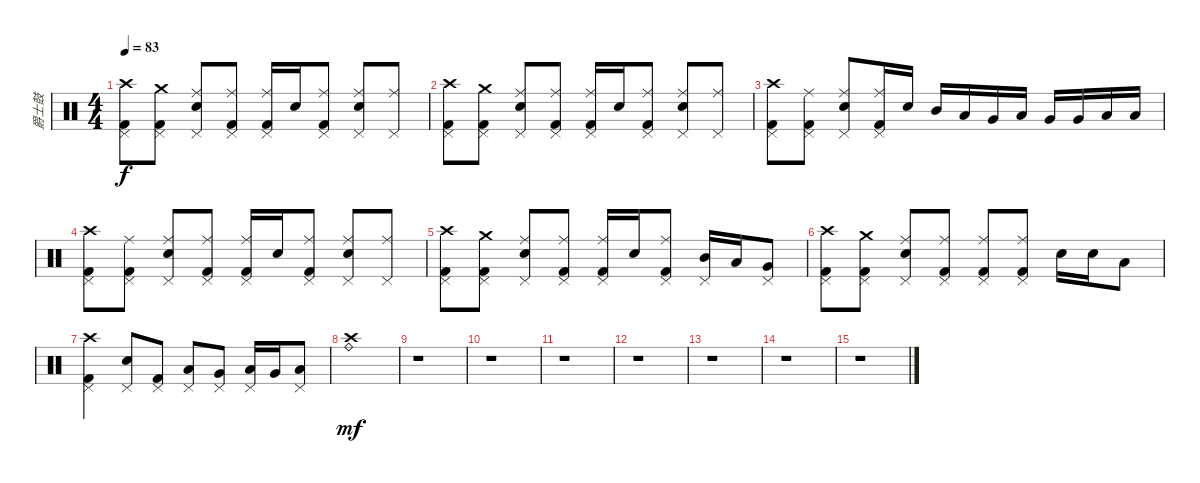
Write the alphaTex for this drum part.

\track ("爵士鼓" "爵士鼓") {instrument percussion}
\staff {score}
\articulation defaults
\ts (4 4)
\tempo 83
\clef neutral
\ks c
("Crash high (hit)" "Pedal Hi-Hat (hit)" "Kick (hit) 2").8{dy f} ("Crash medium (hit)" "Pedal Hi-Hat (hit)" "Kick (hit) 2").8 ("Ride (middle)" "Pedal Hi-Hat (hit)" "Electric Snare (hit)").8 ("Ride (middle)" "Pedal Hi-Hat (hit)" "Kick (hit) 2").8 ("Ride (middle)" "Pedal Hi-Hat (hit)" "Kick (hit) 2").16 "Electric Snare (hit)".16 ("Ride (middle)" "Pedal Hi-Hat (hit)" "Kick (hit) 2").8 ("Ride (middle)" "Pedal Hi-Hat (hit)" "Electric Snare (hit)").8 ("Ride (middle)" "Pedal Hi-Hat (hit)").8 |
("Crash high (hit)" "Pedal Hi-Hat (hit)" "Kick (hit) 2").8 ("Crash medium (hit)" "Pedal Hi-Hat (hit)" "Kick (hit) 2").8 ("Ride (middle)" "Pedal Hi-Hat (hit)" "Electric Snare (hit)").8 ("Ride (middle)" "Pedal Hi-Hat (hit)" "Kick (hit) 2").8 ("Ride (middle)" "Pedal Hi-Hat (hit)" "Kick (hit) 2").16 "Electric Snare (hit)".16 ("Ride (middle)" "Pedal Hi-Hat (hit)" "Kick (hit) 2").8 ("Ride (middle)" "Pedal Hi-Hat (hit)" "Electric Snare (hit)").8 ("Ride (middle)" "Pedal Hi-Hat (hit)").8 |
("Crash high (hit)" "Pedal Hi-Hat (hit)" "Kick (hit) 2").8 ("Ride (middle)" "Pedal Hi-Hat (hit)" "Kick (hit) 2").8 ("Ride (middle)" "Pedal Hi-Hat (hit)" "Electric Snare (hit)").8 ("Ride (middle)" "Pedal Hi-Hat (hit)" "Kick (hit) 2").16 "Electric Snare (hit)".16 "Mid Tom (hit)".16 "Low Tom (hit)".16 "Very Low Tom (hit)".16 "Low Floor Tom (hit)".16 "Very Low Tom (hit)".16 "Very Low Tom (hit)".16 "Low Floor Tom (hit)".16 "Low Floor Tom (hit)".16 |
("Crash high (hit)" "Pedal Hi-Hat (hit)" "Kick (hit) 2").8 ("Ride (middle)" "Pedal Hi-Hat (hit)" "Kick (hit) 2").8 ("Ride (middle)" "Pedal Hi-Hat (hit)" "Electric Snare (hit)").8 ("Ride (middle)" "Pedal Hi-Hat (hit)" "Kick (hit) 2").8 ("Ride (middle)" "Pedal Hi-Hat (hit)" "Kick (hit) 2").16 "Electric Snare (hit)".16 ("Ride (middle)" "Pedal Hi-Hat (hit)" "Kick (hit) 2").8 ("Ride (middle)" "Pedal Hi-Hat (hit)" "Electric Snare (hit)").8 ("Ride (middle)" "Pedal Hi-Hat (hit)").8 |
("Crash high (hit)" "Pedal Hi-Hat (hit)" "Kick (hit) 2").8 ("Crash medium (hit)" "Pedal Hi-Hat (hit)" "Kick (hit) 2").8 ("Ride (middle)" "Pedal Hi-Hat (hit)" "Electric Snare (hit)").8 ("Ride (middle)" "Pedal Hi-Hat (hit)" "Kick (hit) 2").8 ("Ride (middle)" "Pedal Hi-Hat (hit)" "Kick (hit) 2").16 "Electric Snare (hit)".16 ("Ride (middle)" "Pedal Hi-Hat (hit)" "Kick (hit) 2").8 ("Pedal Hi-Hat (hit)" "Mid Tom (hit)").16 "Low Tom (hit)".16 ("Pedal Hi-Hat (hit)" "Very Low Tom (hit)").8 |
("Crash high (hit)" "Pedal Hi-Hat (hit)" "Kick (hit) 2").8 ("Crash medium (hit)" "Pedal Hi-Hat (hit)" "Kick (hit) 2").8 ("Ride (middle)" "Pedal Hi-Hat (hit)" "Electric Snare (hit)").8 ("Ride (middle)" "Pedal Hi-Hat (hit)" "Kick (hit) 2").8 ("Ride (middle)" "Pedal Hi-Hat (hit)" "Kick (hit) 2").8 ("Ride (middle)" "Pedal Hi-Hat (hit)" "Kick (hit) 2").8 "Electric Snare (hit)".16 "Electric Snare (hit)".16 "Low Tom (hit)".8 |
("Crash high (hit)" "Pedal Hi-Hat (hit)" "Kick (hit) 2").4 ("Pedal Hi-Hat (hit)" "Electric Snare (hit)").8 ("Pedal Hi-Hat (hit)" "Kick (hit) 2").8 ("Pedal Hi-Hat (hit)" "Low Tom (hit)").8 ("Pedal Hi-Hat (hit)" "Very Low Tom (hit)").8 ("Pedal Hi-Hat (hit)" "Low Tom (hit)").16 "Very Low Tom (hit)".16 ("Pedal Hi-Hat (hit)" "Low Floor Tom (hit)").8 |
("Crash high (hit)" "Ride (bell)").1{dy mf} |
r.1 |
r.1 |
r.1 |
r.1 |
r.1 |
r.1 |
r.1
